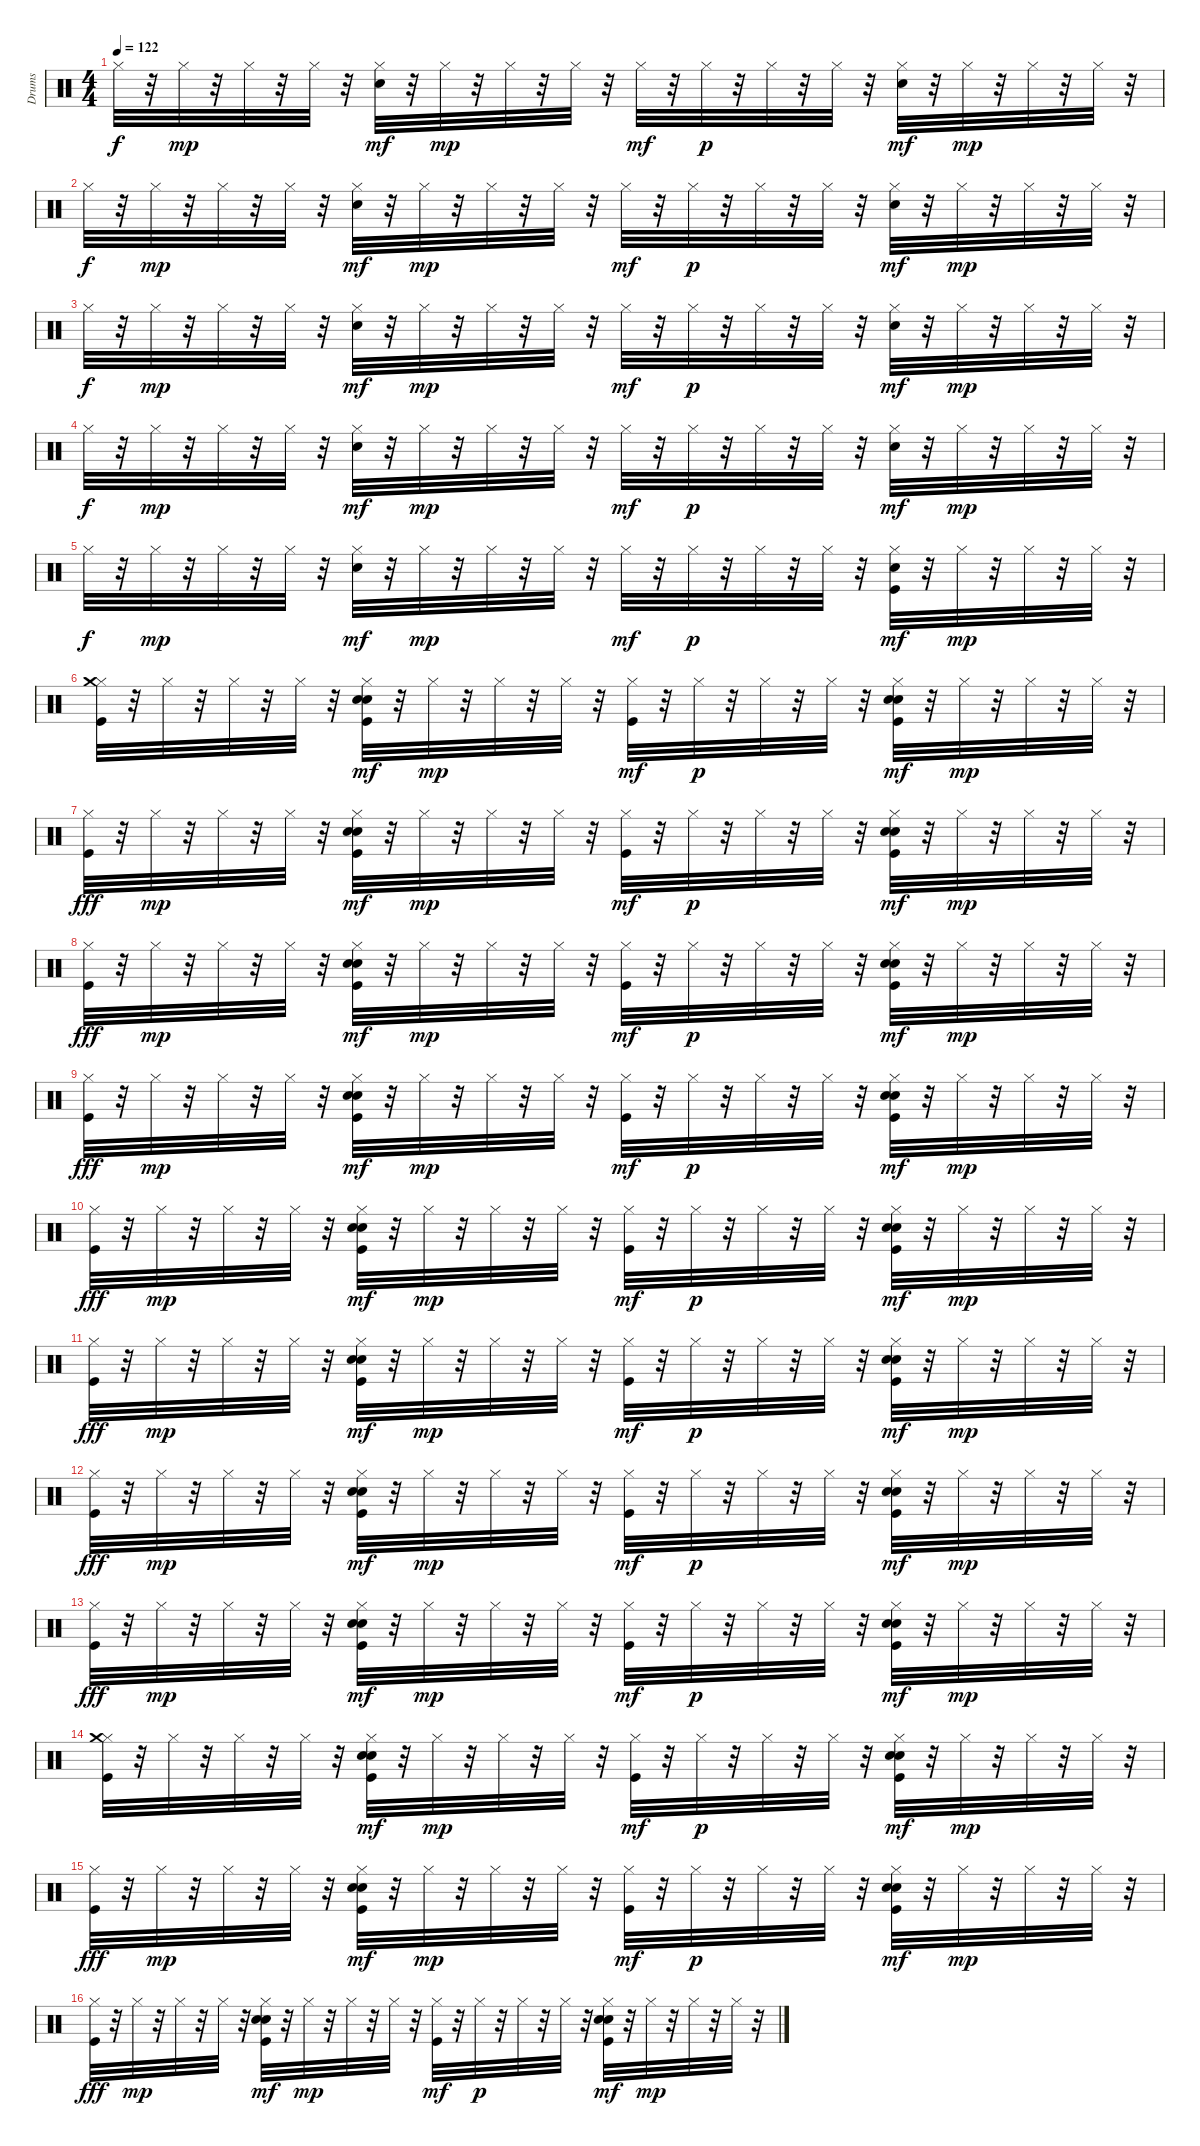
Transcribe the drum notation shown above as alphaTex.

\track ("Drums" "Drums") {instrument percussion}
\staff {score}
\articulation defaults
\ts (4 4)
\tempo 122
\clef neutral
\ks c "Hi-Hat (closed)".32{dy f}
r.32 "Hi-Hat (closed)".32{dy mp} r.32 "Hi-Hat (closed)".32 r.32 "Hi-Hat (closed)".32 r.32 ("Hand Clap (hit)" "Hi-Hat (closed)").32{dy mf} r.32 "Hi-Hat (closed)".32{dy mp} r.32 "Hi-Hat (closed)".32 r.32 "Hi-Hat (closed)".32 r.32 "Hi-Hat (closed)".32{dy mf} r.32 "Hi-Hat (closed)".32{dy p} r.32 "Hi-Hat (closed)".32 r.32 "Hi-Hat (closed)".32 r.32 ("Hand Clap (hit)" "Hi-Hat (closed)").32{dy mf} r.32 "Hi-Hat (closed)".32{dy mp} r.32 "Hi-Hat (closed)".32 r.32 "Hi-Hat (closed)".32 r.32 |
"Hi-Hat (closed)".32{dy f} r.32 "Hi-Hat (closed)".32{dy mp} r.32 "Hi-Hat (closed)".32 r.32 "Hi-Hat (closed)".32 r.32 ("Hand Clap (hit)" "Hi-Hat (closed)").32{dy mf} r.32 "Hi-Hat (closed)".32{dy mp} r.32 "Hi-Hat (closed)".32 r.32 "Hi-Hat (closed)".32 r.32 "Hi-Hat (closed)".32{dy mf} r.32 "Hi-Hat (closed)".32{dy p} r.32 "Hi-Hat (closed)".32 r.32 "Hi-Hat (closed)".32 r.32 ("Hand Clap (hit)" "Hi-Hat (closed)").32{dy mf} r.32 "Hi-Hat (closed)".32{dy mp} r.32 "Hi-Hat (closed)".32 r.32 "Hi-Hat (closed)".32 r.32 |
"Hi-Hat (closed)".32{dy f} r.32 "Hi-Hat (closed)".32{dy mp} r.32 "Hi-Hat (closed)".32 r.32 "Hi-Hat (closed)".32 r.32 ("Hand Clap (hit)" "Hi-Hat (closed)").32{dy mf} r.32 "Hi-Hat (closed)".32{dy mp} r.32 "Hi-Hat (closed)".32 r.32 "Hi-Hat (closed)".32 r.32 "Hi-Hat (closed)".32{dy mf} r.32 "Hi-Hat (closed)".32{dy p} r.32 "Hi-Hat (closed)".32 r.32 "Hi-Hat (closed)".32 r.32 ("Hand Clap (hit)" "Hi-Hat (closed)").32{dy mf} r.32 "Hi-Hat (closed)".32{dy mp} r.32 "Hi-Hat (closed)".32 r.32 "Hi-Hat (closed)".32 r.32 |
"Hi-Hat (closed)".32{dy f} r.32 "Hi-Hat (closed)".32{dy mp} r.32 "Hi-Hat (closed)".32 r.32 "Hi-Hat (closed)".32 r.32 ("Hand Clap (hit)" "Hi-Hat (closed)").32{dy mf} r.32 "Hi-Hat (closed)".32{dy mp} r.32 "Hi-Hat (closed)".32 r.32 "Hi-Hat (closed)".32 r.32 "Hi-Hat (closed)".32{dy mf} r.32 "Hi-Hat (closed)".32{dy p} r.32 "Hi-Hat (closed)".32 r.32 "Hi-Hat (closed)".32 r.32 ("Hand Clap (hit)" "Hi-Hat (closed)").32{dy mf} r.32 "Hi-Hat (closed)".32{dy mp} r.32 "Hi-Hat (closed)".32 r.32 "Hi-Hat (closed)".32 r.32 |
"Hi-Hat (closed)".32{dy f} r.32 "Hi-Hat (closed)".32{dy mp} r.32 "Hi-Hat (closed)".32 r.32 "Hi-Hat (closed)".32 r.32 ("Hand Clap (hit)" "Hi-Hat (closed)").32{dy mf} r.32 "Hi-Hat (closed)".32{dy mp} r.32 "Hi-Hat (closed)".32 r.32 "Hi-Hat (closed)".32 r.32 "Hi-Hat (closed)".32{dy mf} r.32 "Hi-Hat (closed)".32{dy p} r.32 "Hi-Hat (closed)".32 r.32 "Hi-Hat (closed)".32 r.32 ("Kick (hit)" "Hand Clap (hit)" "Hi-Hat (closed)").32{dy mf} r.32 "Hi-Hat (closed)".32{dy mp} r.32 "Hi-Hat (closed)".32 r.32 "Hi-Hat (closed)".32 r.32 |
("Kick (hit)" "Hi-Hat (closed)" "Crash medium (hit)").32 r.32 "Hi-Hat (closed)".32 r.32 "Hi-Hat (closed)".32 r.32 "Hi-Hat (closed)".32 r.32 ("Kick (hit)" "Hand Clap (hit)" "Electric Snare (hit)" "Hi-Hat (closed)").32{dy mf} r.32 "Hi-Hat (closed)".32{dy mp} r.32 "Hi-Hat (closed)".32 r.32 "Hi-Hat (closed)".32 r.32 ("Kick (hit)" "Hi-Hat (closed)").32{dy mf} r.32 "Hi-Hat (closed)".32{dy p} r.32 "Hi-Hat (closed)".32 r.32 "Hi-Hat (closed)".32 r.32 ("Kick (hit)" "Hand Clap (hit)" "Electric Snare (hit)" "Hi-Hat (closed)").32{dy mf} r.32 "Hi-Hat (closed)".32{dy mp} r.32 "Hi-Hat (closed)".32 r.32 "Hi-Hat (closed)".32 r.32 |
("Kick (hit)" "Hi-Hat (closed)").32{dy fff} r.32 "Hi-Hat (closed)".32{dy mp} r.32 "Hi-Hat (closed)".32 r.32 "Hi-Hat (closed)".32 r.32 ("Kick (hit)" "Hand Clap (hit)" "Electric Snare (hit)" "Hi-Hat (closed)").32{dy mf} r.32 "Hi-Hat (closed)".32{dy mp} r.32 "Hi-Hat (closed)".32 r.32 "Hi-Hat (closed)".32 r.32 ("Kick (hit)" "Hi-Hat (closed)").32{dy mf} r.32 "Hi-Hat (closed)".32{dy p} r.32 "Hi-Hat (closed)".32 r.32 "Hi-Hat (closed)".32 r.32 ("Kick (hit)" "Hand Clap (hit)" "Electric Snare (hit)" "Hi-Hat (closed)").32{dy mf} r.32 "Hi-Hat (closed)".32{dy mp} r.32 "Hi-Hat (closed)".32 r.32 "Hi-Hat (closed)".32 r.32 |
("Kick (hit)" "Hi-Hat (closed)").32{dy fff} r.32 "Hi-Hat (closed)".32{dy mp} r.32 "Hi-Hat (closed)".32 r.32 "Hi-Hat (closed)".32 r.32 ("Kick (hit)" "Hand Clap (hit)" "Electric Snare (hit)" "Hi-Hat (closed)").32{dy mf} r.32 "Hi-Hat (closed)".32{dy mp} r.32 "Hi-Hat (closed)".32 r.32 "Hi-Hat (closed)".32 r.32 ("Kick (hit)" "Hi-Hat (closed)").32{dy mf} r.32 "Hi-Hat (closed)".32{dy p} r.32 "Hi-Hat (closed)".32 r.32 "Hi-Hat (closed)".32 r.32 ("Kick (hit)" "Hand Clap (hit)" "Electric Snare (hit)" "Hi-Hat (closed)").32{dy mf} r.32 "Hi-Hat (closed)".32{dy mp} r.32 "Hi-Hat (closed)".32 r.32 "Hi-Hat (closed)".32 r.32 |
("Kick (hit)" "Hi-Hat (closed)").32{dy fff} r.32 "Hi-Hat (closed)".32{dy mp} r.32 "Hi-Hat (closed)".32 r.32 "Hi-Hat (closed)".32 r.32 ("Kick (hit)" "Hand Clap (hit)" "Electric Snare (hit)" "Hi-Hat (closed)").32{dy mf} r.32 "Hi-Hat (closed)".32{dy mp} r.32 "Hi-Hat (closed)".32 r.32 "Hi-Hat (closed)".32 r.32 ("Kick (hit)" "Hi-Hat (closed)").32{dy mf} r.32 "Hi-Hat (closed)".32{dy p} r.32 "Hi-Hat (closed)".32 r.32 "Hi-Hat (closed)".32 r.32 ("Kick (hit)" "Hand Clap (hit)" "Electric Snare (hit)" "Hi-Hat (closed)").32{dy mf} r.32 "Hi-Hat (closed)".32{dy mp} r.32 "Hi-Hat (closed)".32 r.32 "Hi-Hat (closed)".32 r.32 |
("Kick (hit)" "Hi-Hat (closed)").32{dy fff} r.32 "Hi-Hat (closed)".32{dy mp} r.32 "Hi-Hat (closed)".32 r.32 "Hi-Hat (closed)".32 r.32 ("Kick (hit)" "Hand Clap (hit)" "Electric Snare (hit)" "Hi-Hat (closed)").32{dy mf} r.32 "Hi-Hat (closed)".32{dy mp} r.32 "Hi-Hat (closed)".32 r.32 "Hi-Hat (closed)".32 r.32 ("Kick (hit)" "Hi-Hat (closed)").32{dy mf} r.32 "Hi-Hat (closed)".32{dy p} r.32 "Hi-Hat (closed)".32 r.32 "Hi-Hat (closed)".32 r.32 ("Kick (hit)" "Hand Clap (hit)" "Electric Snare (hit)" "Hi-Hat (closed)").32{dy mf} r.32 "Hi-Hat (closed)".32{dy mp} r.32 "Hi-Hat (closed)".32 r.32 "Hi-Hat (closed)".32 r.32 |
("Kick (hit)" "Hi-Hat (closed)").32{dy fff} r.32 "Hi-Hat (closed)".32{dy mp} r.32 "Hi-Hat (closed)".32 r.32 "Hi-Hat (closed)".32 r.32 ("Kick (hit)" "Hand Clap (hit)" "Electric Snare (hit)" "Hi-Hat (closed)").32{dy mf} r.32 "Hi-Hat (closed)".32{dy mp} r.32 "Hi-Hat (closed)".32 r.32 "Hi-Hat (closed)".32 r.32 ("Kick (hit)" "Hi-Hat (closed)").32{dy mf} r.32 "Hi-Hat (closed)".32{dy p} r.32 "Hi-Hat (closed)".32 r.32 "Hi-Hat (closed)".32 r.32 ("Kick (hit)" "Hand Clap (hit)" "Electric Snare (hit)" "Hi-Hat (closed)").32{dy mf} r.32 "Hi-Hat (closed)".32{dy mp} r.32 "Hi-Hat (closed)".32 r.32 "Hi-Hat (closed)".32 r.32 |
("Kick (hit)" "Hi-Hat (closed)").32{dy fff} r.32 "Hi-Hat (closed)".32{dy mp} r.32 "Hi-Hat (closed)".32 r.32 "Hi-Hat (closed)".32 r.32 ("Kick (hit)" "Hand Clap (hit)" "Electric Snare (hit)" "Hi-Hat (closed)").32{dy mf} r.32 "Hi-Hat (closed)".32{dy mp} r.32 "Hi-Hat (closed)".32 r.32 "Hi-Hat (closed)".32 r.32 ("Kick (hit)" "Hi-Hat (closed)").32{dy mf} r.32 "Hi-Hat (closed)".32{dy p} r.32 "Hi-Hat (closed)".32 r.32 "Hi-Hat (closed)".32 r.32 ("Kick (hit)" "Hand Clap (hit)" "Electric Snare (hit)" "Hi-Hat (closed)").32{dy mf} r.32 "Hi-Hat (closed)".32{dy mp} r.32 "Hi-Hat (closed)".32 r.32 "Hi-Hat (closed)".32 r.32 |
("Kick (hit)" "Hi-Hat (closed)").32{dy fff} r.32 "Hi-Hat (closed)".32{dy mp} r.32 "Hi-Hat (closed)".32 r.32 "Hi-Hat (closed)".32 r.32 ("Kick (hit)" "Hand Clap (hit)" "Electric Snare (hit)" "Hi-Hat (closed)").32{dy mf} r.32 "Hi-Hat (closed)".32{dy mp} r.32 "Hi-Hat (closed)".32 r.32 "Hi-Hat (closed)".32 r.32 ("Kick (hit)" "Hi-Hat (closed)").32{dy mf} r.32 "Hi-Hat (closed)".32{dy p} r.32 "Hi-Hat (closed)".32 r.32 "Hi-Hat (closed)".32 r.32 ("Kick (hit)" "Hand Clap (hit)" "Electric Snare (hit)" "Hi-Hat (closed)").32{dy mf} r.32 "Hi-Hat (closed)".32{dy mp} r.32 "Hi-Hat (closed)".32 r.32 "Hi-Hat (closed)".32 r.32 |
("Kick (hit)" "Hi-Hat (closed)" "Crash medium (hit)").32 r.32 "Hi-Hat (closed)".32 r.32 "Hi-Hat (closed)".32 r.32 "Hi-Hat (closed)".32 r.32 ("Kick (hit)" "Hand Clap (hit)" "Electric Snare (hit)" "Hi-Hat (closed)").32{dy mf} r.32 "Hi-Hat (closed)".32{dy mp} r.32 "Hi-Hat (closed)".32 r.32 "Hi-Hat (closed)".32 r.32 ("Kick (hit)" "Hi-Hat (closed)").32{dy mf} r.32 "Hi-Hat (closed)".32{dy p} r.32 "Hi-Hat (closed)".32 r.32 "Hi-Hat (closed)".32 r.32 ("Kick (hit)" "Hand Clap (hit)" "Electric Snare (hit)" "Hi-Hat (closed)").32{dy mf} r.32 "Hi-Hat (closed)".32{dy mp} r.32 "Hi-Hat (closed)".32 r.32 "Hi-Hat (closed)".32 r.32 |
("Kick (hit)" "Hi-Hat (closed)").32{dy fff} r.32 "Hi-Hat (closed)".32{dy mp} r.32 "Hi-Hat (closed)".32 r.32 "Hi-Hat (closed)".32 r.32 ("Kick (hit)" "Hand Clap (hit)" "Electric Snare (hit)" "Hi-Hat (closed)").32{dy mf} r.32 "Hi-Hat (closed)".32{dy mp} r.32 "Hi-Hat (closed)".32 r.32 "Hi-Hat (closed)".32 r.32 ("Kick (hit)" "Hi-Hat (closed)").32{dy mf} r.32 "Hi-Hat (closed)".32{dy p} r.32 "Hi-Hat (closed)".32 r.32 "Hi-Hat (closed)".32 r.32 ("Kick (hit)" "Hand Clap (hit)" "Electric Snare (hit)" "Hi-Hat (closed)").32{dy mf} r.32 "Hi-Hat (closed)".32{dy mp} r.32 "Hi-Hat (closed)".32 r.32 "Hi-Hat (closed)".32 r.32 |
("Kick (hit)" "Hi-Hat (closed)").32{dy fff} r.32 "Hi-Hat (closed)".32{dy mp} r.32 "Hi-Hat (closed)".32 r.32 "Hi-Hat (closed)".32 r.32 ("Kick (hit)" "Hand Clap (hit)" "Electric Snare (hit)" "Hi-Hat (closed)").32{dy mf} r.32 "Hi-Hat (closed)".32{dy mp} r.32 "Hi-Hat (closed)".32 r.32 "Hi-Hat (closed)".32 r.32 ("Kick (hit)" "Hi-Hat (closed)").32{dy mf} r.32 "Hi-Hat (closed)".32{dy p} r.32 "Hi-Hat (closed)".32 r.32 "Hi-Hat (closed)".32 r.32 ("Kick (hit)" "Hand Clap (hit)" "Electric Snare (hit)" "Hi-Hat (closed)").32{dy mf} r.32 "Hi-Hat (closed)".32{dy mp} r.32 "Hi-Hat (closed)".32 r.32 "Hi-Hat (closed)".32 r.32
